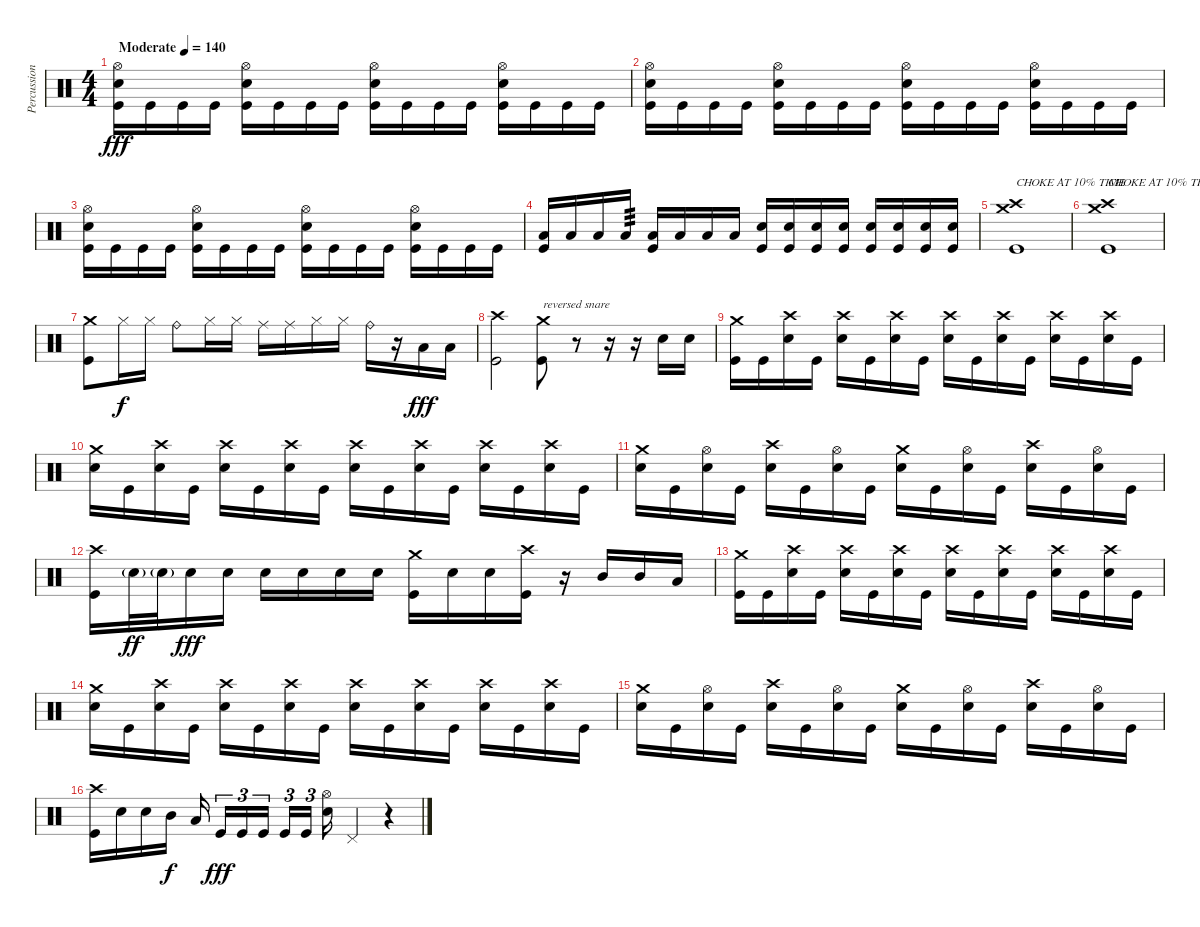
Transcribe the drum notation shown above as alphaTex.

\track ("Percussion" "Percussion") {instrument percussion}
\staff {score}
\articulation defaults
\ts (4 4)
\tempo (140 "Moderate")
\clef neutral
\ks c
("Hi-Hat (open)" "Snare (hit) 2" "Kick (hit)").16{dy fff volume 2} "Kick (hit)".16{volume 16} "Kick (hit)".16 "Kick (hit)".16 ("Hi-Hat (open)" "Snare (hit) 2" "Kick (hit)").16 "Kick (hit)".16 "Kick (hit)".16 "Kick (hit)".16 ("Hi-Hat (open)" "Snare (hit) 2" "Kick (hit)").16 "Kick (hit)".16 "Kick (hit)".16 "Kick (hit)".16 ("Hi-Hat (open)" "Snare (hit) 2" "Kick (hit)").16 "Kick (hit)".16 "Kick (hit)".16 "Kick (hit)".16 |
("Hi-Hat (open)" "Snare (hit) 2" "Kick (hit)").16 "Kick (hit)".16 "Kick (hit)".16 "Kick (hit)".16 ("Hi-Hat (open)" "Snare (hit) 2" "Kick (hit)").16 "Kick (hit)".16 "Kick (hit)".16 "Kick (hit)".16 ("Hi-Hat (open)" "Snare (hit) 2" "Kick (hit)").16 "Kick (hit)".16 "Kick (hit)".16 "Kick (hit)".16 ("Hi-Hat (open)" "Snare (hit) 2" "Kick (hit)").16 "Kick (hit)".16 "Kick (hit)".16 "Kick (hit)".16 |
("Hi-Hat (open)" "Snare (hit) 2" "Kick (hit)").16 "Kick (hit)".16 "Kick (hit)".16 "Kick (hit)".16 ("Hi-Hat (open)" "Snare (hit) 2" "Kick (hit)").16 "Kick (hit)".16 "Kick (hit)".16 "Kick (hit)".16 ("Hi-Hat (open)" "Snare (hit) 2" "Kick (hit)").16 "Kick (hit)".16 "Kick (hit)".16 "Kick (hit)".16 ("Hi-Hat (open)" "Snare (hit) 2" "Kick (hit)").16 "Kick (hit)".16 "Kick (hit)".16 "Kick (hit)".16 |
("Low Floor Tom (hit)" "Kick (hit)").16 "Low Floor Tom (hit)".16 "Low Floor Tom (hit)".16 "Low Floor Tom (hit)".16{tp 3} ("Low Floor Tom (hit)" "Kick (hit)").16 "Low Floor Tom (hit)".16 "Low Floor Tom (hit)".16 "Low Floor Tom (hit)".16 ("Snare (hit) 2" "Kick (hit)").16 ("Snare (hit) 2" "Kick (hit)").16 ("Snare (hit) 2" "Kick (hit)").16 ("Snare (hit) 2" "Kick (hit)").16 ("Snare (hit) 2" "Kick (hit)").16 ("Snare (hit) 2" "Kick (hit)").16 ("Snare (hit) 2" "Kick (hit)").16 ("Snare (hit) 2" "Kick (hit)").16 |
("Crash medium (hit)" "Crash high (hit)" "Kick (hit)").1{txt "CHOKE AT 10% TIME"} |
("Crash high (hit)" "Crash medium (hit)" "Kick (hit)").1{txt "CHOKE AT 10% TIME"} |
("Crash medium (hit)" "Kick (hit)").8 "Hi-Hat (closed)".16{dy f} "Hi-Hat (closed)".16 "Ride (bell)".8 "Hi-Hat (closed)".16 "Hi-Hat (closed)".16 "Ride (middle)".16 "Ride (middle)".16 "Hi-Hat (closed)".16 "Hi-Hat (closed)".16 "Ride (bell)".16 r.16 "Low Floor Tom (hit)".16{dy fff} "Low Floor Tom (hit)".16 |
("Crash high (hit)" "Kick (hit)").2 ("Crash medium (hit)" "Kick (hit)").8{txt "reversed snare"} r.8 r.16 r.16 "Snare (hit) 2".16 "Snare (hit) 2".16 |
("Crash medium (hit)" "Kick (hit)").16 "Kick (hit)".16 ("Crash high (hit)" "Snare (hit) 2").16 "Kick (hit)".16 ("Crash high (hit)" "Snare (hit) 2").16 "Kick (hit)".16 ("Crash high (hit)" "Snare (hit) 2").16 "Kick (hit)".16 ("Crash high (hit)" "Snare (hit) 2").16 "Kick (hit)".16 ("Crash high (hit)" "Snare (hit) 2").16 "Kick (hit)".16 ("Crash high (hit)" "Snare (hit) 2").16 "Kick (hit)".16 ("Crash high (hit)" "Snare (hit) 2").16 "Kick (hit)".16 |
("Crash medium (hit)" "Snare (hit) 2").16 "Kick (hit)".16 ("Crash high (hit)" "Snare (hit) 2").16 "Kick (hit)".16 ("Crash high (hit)" "Snare (hit) 2").16 "Kick (hit)".16 ("Crash high (hit)" "Snare (hit) 2").16 "Kick (hit)".16 ("Crash high (hit)" "Snare (hit) 2").16 "Kick (hit)".16 ("Crash high (hit)" "Snare (hit) 2").16 "Kick (hit)".16 ("Crash high (hit)" "Snare (hit) 2").16 "Kick (hit)".16 ("Crash high (hit)" "Snare (hit) 2").16 "Kick (hit)".16 |
("Crash medium (hit)" "Snare (hit) 2").16 "Kick (hit)".16 ("Hi-Hat (open)" "Snare (hit) 2").16 "Kick (hit)".16 ("Crash high (hit)" "Snare (hit) 2").16 "Kick (hit)".16 ("Hi-Hat (open)" "Snare (hit) 2").16 "Kick (hit)".16 ("Crash medium (hit)" "Snare (hit) 2").16 "Kick (hit)".16 ("Hi-Hat (open)" "Snare (hit) 2").16 "Kick (hit)".16 ("Crash high (hit)" "Snare (hit) 2").16 "Kick (hit)".16 ("Hi-Hat (open)" "Snare (hit) 2").16 "Kick (hit)".16 |
("Crash high (hit)" "Kick (hit)").16 "Snare (hit) 2"{g}.32{dy ff} "Snare (hit) 2"{g}.32 "Snare (hit) 2".16{dy fff} "Snare (hit) 2".16 "Snare (hit) 2".16 "Snare (hit) 2".16 "Snare (hit) 2".16 "Snare (hit) 2".16 ("Crash medium (hit)" "Kick (hit)").16 "Snare (hit) 2".16 "Snare (hit) 2".16 ("Crash high (hit)" "Kick (hit)").16 r.16 "Mid Tom (hit)".16 "Mid Tom (hit)".16 "Low Floor Tom (hit)".16 |
("Crash medium (hit)" "Kick (hit)").16 "Kick (hit)".16 ("Crash high (hit)" "Snare (hit) 2").16 "Kick (hit)".16 ("Crash high (hit)" "Snare (hit) 2").16 "Kick (hit)".16 ("Crash high (hit)" "Snare (hit) 2").16 "Kick (hit)".16 ("Crash high (hit)" "Snare (hit) 2").16 "Kick (hit)".16 ("Crash high (hit)" "Snare (hit) 2").16 "Kick (hit)".16 ("Crash high (hit)" "Snare (hit) 2").16 "Kick (hit)".16 ("Crash high (hit)" "Snare (hit) 2").16 "Kick (hit)".16 |
("Crash medium (hit)" "Snare (hit) 2").16 "Kick (hit)".16 ("Crash high (hit)" "Snare (hit) 2").16 "Kick (hit)".16 ("Crash high (hit)" "Snare (hit) 2").16 "Kick (hit)".16 ("Crash high (hit)" "Snare (hit) 2").16 "Kick (hit)".16 ("Crash high (hit)" "Snare (hit) 2").16 "Kick (hit)".16 ("Crash high (hit)" "Snare (hit) 2").16 "Kick (hit)".16 ("Crash high (hit)" "Snare (hit) 2").16 "Kick (hit)".16 ("Crash high (hit)" "Snare (hit) 2").16 "Kick (hit)".16 |
("Crash medium (hit)" "Snare (hit) 2").16 "Kick (hit)".16 ("Hi-Hat (open)" "Snare (hit) 2").16 "Kick (hit)".16 ("Crash high (hit)" "Snare (hit) 2").16 "Kick (hit)".16 ("Hi-Hat (open)" "Snare (hit) 2").16 "Kick (hit)".16 ("Crash medium (hit)" "Snare (hit) 2").16 "Kick (hit)".16 ("Hi-Hat (open)" "Snare (hit) 2").16 "Kick (hit)".16 ("Crash high (hit)" "Snare (hit) 2").16 "Kick (hit)".16 ("Hi-Hat (open)" "Snare (hit) 2").16 "Kick (hit)".16 |
("Crash high (hit)" "Kick (hit)").16 "Snare (hit) 2".16 "Snare (hit) 2".16 "Mid Tom (hit)".16{dy f} "Low Floor Tom (hit)".16{beam splitsecondary} "Kick (hit)".16{tu (3 2) dy fff} "Kick (hit)".16{tu (3 2)} "Kick (hit)".16{tu (3 2) beam splitsecondary} "Kick (hit)".16{tu (3 2)} "Kick (hit)".16{tu (3 2)} ("Hi-Hat (open)" "Snare (hit) 2").16 "Pedal Hi-Hat (hit)".4 r.4{tu (3 2)}
